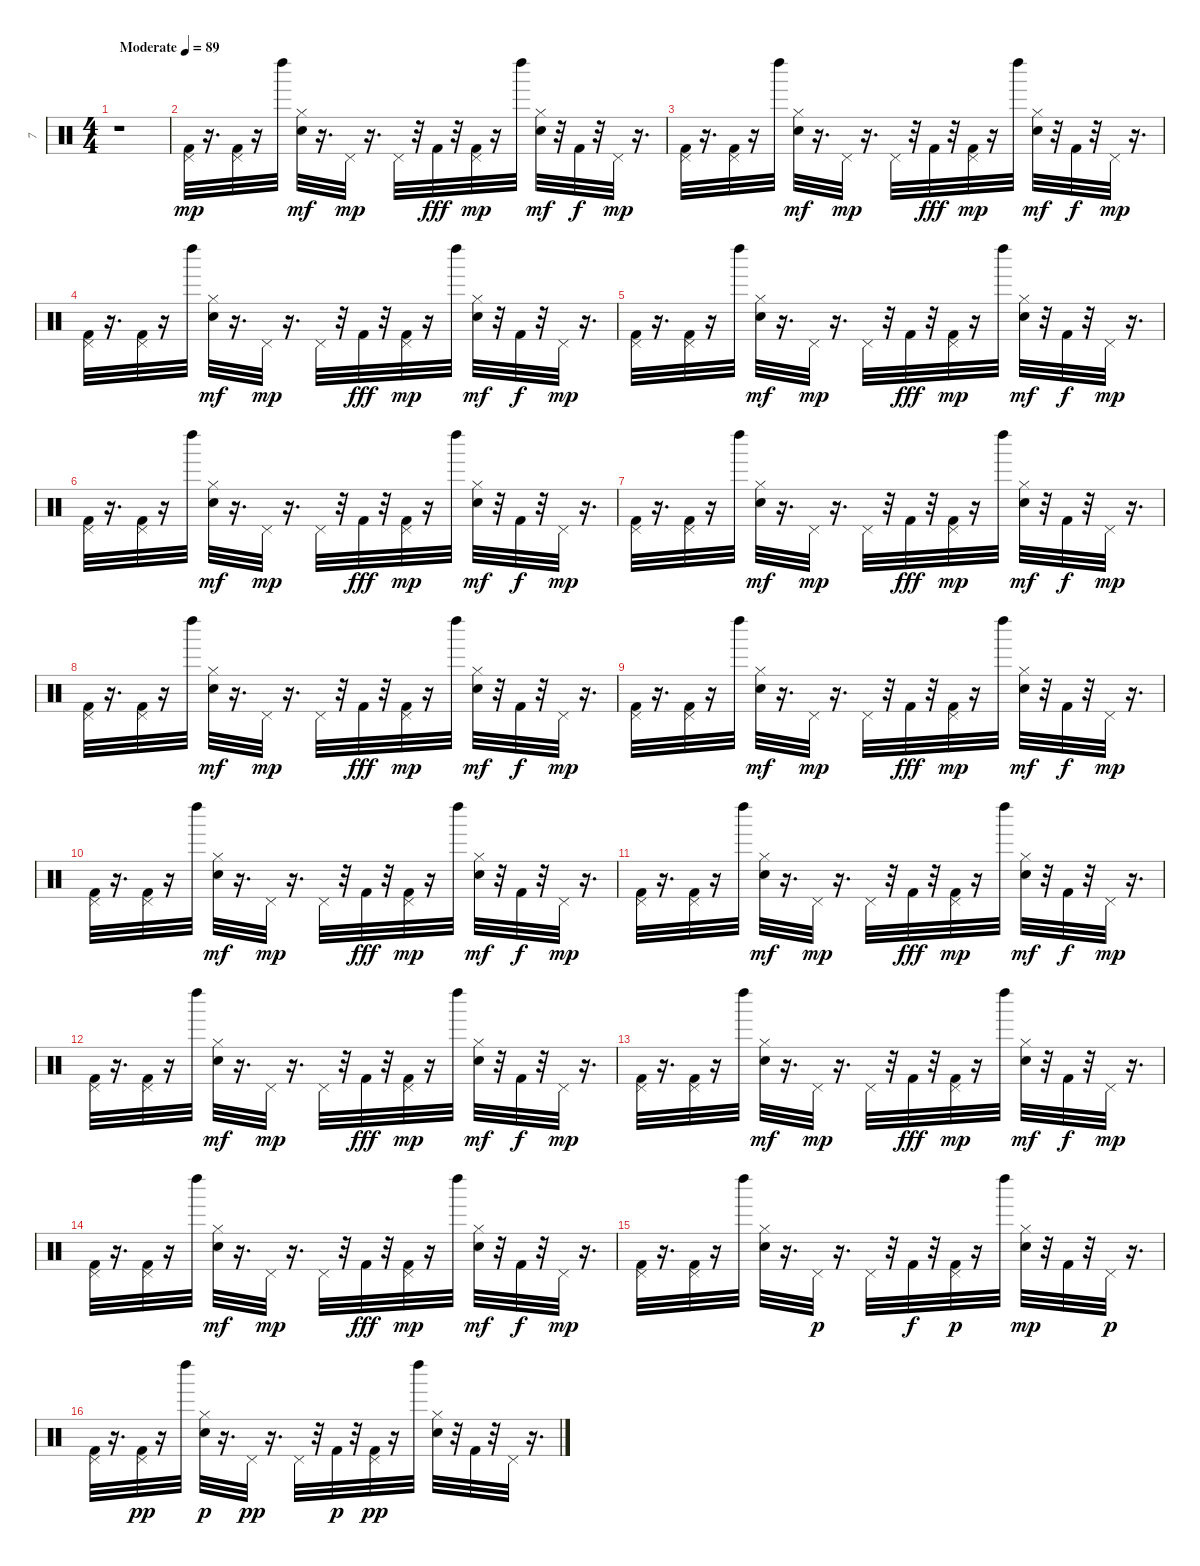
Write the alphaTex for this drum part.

\track ("7" "7") {instrument percussion}
\staff {score}
\articulation defaults
\ts (4 4)
\tempo (89 "Moderate")
\clef neutral
\ks c
r.1{dy mp} |
("Kick (hit) 2" "Pedal Hi-Hat (hit)").32 r.16{d} ("Kick (hit) 2" "Pedal Hi-Hat (hit)").32 r.16 "Left Maraca (hit)".32 ("Hand Clap (hit)" "Hi-Hat (closed)").32{dy mf} r.16{d} "Pedal Hi-Hat (hit)".32{dy mp} r.16{d} "Pedal Hi-Hat (hit)".32 r.32 "Kick (hit) 2".32{dy fff} r.32 ("Kick (hit) 2" "Pedal Hi-Hat (hit)").32{dy mp} r.16 "Left Maraca (hit)".32 ("Hand Clap (hit)" "Hi-Hat (closed)").32{dy mf} r.32 "Kick (hit) 2".32{dy f} r.32 "Pedal Hi-Hat (hit)".32{dy mp} r.16{d} |
("Kick (hit) 2" "Pedal Hi-Hat (hit)").32 r.16{d} ("Kick (hit) 2" "Pedal Hi-Hat (hit)").32 r.16 "Left Maraca (hit)".32 ("Hand Clap (hit)" "Hi-Hat (closed)").32{dy mf} r.16{d} "Pedal Hi-Hat (hit)".32{dy mp} r.16{d} "Pedal Hi-Hat (hit)".32 r.32 "Kick (hit) 2".32{dy fff} r.32 ("Kick (hit) 2" "Pedal Hi-Hat (hit)").32{dy mp} r.16 "Left Maraca (hit)".32 ("Hand Clap (hit)" "Hi-Hat (closed)").32{dy mf} r.32 "Kick (hit) 2".32{dy f} r.32 "Pedal Hi-Hat (hit)".32{dy mp} r.16{d} |
("Kick (hit) 2" "Pedal Hi-Hat (hit)").32 r.16{d} ("Kick (hit) 2" "Pedal Hi-Hat (hit)").32 r.16 "Left Maraca (hit)".32 ("Hand Clap (hit)" "Hi-Hat (closed)").32{dy mf} r.16{d} "Pedal Hi-Hat (hit)".32{dy mp} r.16{d} "Pedal Hi-Hat (hit)".32 r.32 "Kick (hit) 2".32{dy fff} r.32 ("Kick (hit) 2" "Pedal Hi-Hat (hit)").32{dy mp} r.16 "Left Maraca (hit)".32 ("Hand Clap (hit)" "Hi-Hat (closed)").32{dy mf} r.32 "Kick (hit) 2".32{dy f} r.32 "Pedal Hi-Hat (hit)".32{dy mp} r.16{d} |
("Kick (hit) 2" "Pedal Hi-Hat (hit)").32 r.16{d} ("Kick (hit) 2" "Pedal Hi-Hat (hit)").32 r.16 "Left Maraca (hit)".32 ("Hand Clap (hit)" "Hi-Hat (closed)").32{dy mf} r.16{d} "Pedal Hi-Hat (hit)".32{dy mp} r.16{d} "Pedal Hi-Hat (hit)".32 r.32 "Kick (hit) 2".32{dy fff} r.32 ("Kick (hit) 2" "Pedal Hi-Hat (hit)").32{dy mp} r.16 "Left Maraca (hit)".32 ("Hand Clap (hit)" "Hi-Hat (closed)").32{dy mf} r.32 "Kick (hit) 2".32{dy f} r.32 "Pedal Hi-Hat (hit)".32{dy mp} r.16{d} |
("Kick (hit) 2" "Pedal Hi-Hat (hit)").32 r.16{d} ("Kick (hit) 2" "Pedal Hi-Hat (hit)").32 r.16 "Left Maraca (hit)".32 ("Hand Clap (hit)" "Hi-Hat (closed)").32{dy mf} r.16{d} "Pedal Hi-Hat (hit)".32{dy mp} r.16{d} "Pedal Hi-Hat (hit)".32 r.32 "Kick (hit) 2".32{dy fff} r.32 ("Kick (hit) 2" "Pedal Hi-Hat (hit)").32{dy mp} r.16 "Left Maraca (hit)".32 ("Hand Clap (hit)" "Hi-Hat (closed)").32{dy mf} r.32 "Kick (hit) 2".32{dy f} r.32 "Pedal Hi-Hat (hit)".32{dy mp} r.16{d} |
("Kick (hit) 2" "Pedal Hi-Hat (hit)").32 r.16{d} ("Kick (hit) 2" "Pedal Hi-Hat (hit)").32 r.16 "Left Maraca (hit)".32 ("Hand Clap (hit)" "Hi-Hat (closed)").32{dy mf} r.16{d} "Pedal Hi-Hat (hit)".32{dy mp} r.16{d} "Pedal Hi-Hat (hit)".32 r.32 "Kick (hit) 2".32{dy fff} r.32 ("Kick (hit) 2" "Pedal Hi-Hat (hit)").32{dy mp} r.16 "Left Maraca (hit)".32 ("Hand Clap (hit)" "Hi-Hat (closed)").32{dy mf} r.32 "Kick (hit) 2".32{dy f} r.32 "Pedal Hi-Hat (hit)".32{dy mp} r.16{d} |
("Kick (hit) 2" "Pedal Hi-Hat (hit)").32 r.16{d} ("Kick (hit) 2" "Pedal Hi-Hat (hit)").32 r.16 "Left Maraca (hit)".32 ("Hand Clap (hit)" "Hi-Hat (closed)").32{dy mf} r.16{d} "Pedal Hi-Hat (hit)".32{dy mp} r.16{d} "Pedal Hi-Hat (hit)".32 r.32 "Kick (hit) 2".32{dy fff} r.32 ("Kick (hit) 2" "Pedal Hi-Hat (hit)").32{dy mp} r.16 "Left Maraca (hit)".32 ("Hand Clap (hit)" "Hi-Hat (closed)").32{dy mf} r.32 "Kick (hit) 2".32{dy f} r.32 "Pedal Hi-Hat (hit)".32{dy mp} r.16{d} |
("Kick (hit) 2" "Pedal Hi-Hat (hit)").32 r.16{d} ("Kick (hit) 2" "Pedal Hi-Hat (hit)").32 r.16 "Left Maraca (hit)".32 ("Hand Clap (hit)" "Hi-Hat (closed)").32{dy mf} r.16{d} "Pedal Hi-Hat (hit)".32{dy mp} r.16{d} "Pedal Hi-Hat (hit)".32 r.32 "Kick (hit) 2".32{dy fff} r.32 ("Kick (hit) 2" "Pedal Hi-Hat (hit)").32{dy mp} r.16 "Left Maraca (hit)".32 ("Hand Clap (hit)" "Hi-Hat (closed)").32{dy mf} r.32 "Kick (hit) 2".32{dy f} r.32 "Pedal Hi-Hat (hit)".32{dy mp} r.16{d} |
("Kick (hit) 2" "Pedal Hi-Hat (hit)").32 r.16{d} ("Kick (hit) 2" "Pedal Hi-Hat (hit)").32 r.16 "Left Maraca (hit)".32 ("Hand Clap (hit)" "Hi-Hat (closed)").32{dy mf} r.16{d} "Pedal Hi-Hat (hit)".32{dy mp} r.16{d} "Pedal Hi-Hat (hit)".32 r.32 "Kick (hit) 2".32{dy fff} r.32 ("Kick (hit) 2" "Pedal Hi-Hat (hit)").32{dy mp} r.16 "Left Maraca (hit)".32 ("Hand Clap (hit)" "Hi-Hat (closed)").32{dy mf} r.32 "Kick (hit) 2".32{dy f} r.32 "Pedal Hi-Hat (hit)".32{dy mp} r.16{d} |
("Kick (hit) 2" "Pedal Hi-Hat (hit)").32 r.16{d} ("Kick (hit) 2" "Pedal Hi-Hat (hit)").32 r.16 "Left Maraca (hit)".32 ("Hand Clap (hit)" "Hi-Hat (closed)").32{dy mf} r.16{d} "Pedal Hi-Hat (hit)".32{dy mp} r.16{d} "Pedal Hi-Hat (hit)".32 r.32 "Kick (hit) 2".32{dy fff} r.32 ("Kick (hit) 2" "Pedal Hi-Hat (hit)").32{dy mp} r.16 "Left Maraca (hit)".32 ("Hand Clap (hit)" "Hi-Hat (closed)").32{dy mf} r.32 "Kick (hit) 2".32{dy f} r.32 "Pedal Hi-Hat (hit)".32{dy mp} r.16{d} |
("Kick (hit) 2" "Pedal Hi-Hat (hit)").32 r.16{d} ("Kick (hit) 2" "Pedal Hi-Hat (hit)").32 r.16 "Left Maraca (hit)".32 ("Hand Clap (hit)" "Hi-Hat (closed)").32{dy mf} r.16{d} "Pedal Hi-Hat (hit)".32{dy mp} r.16{d} "Pedal Hi-Hat (hit)".32 r.32 "Kick (hit) 2".32{dy fff} r.32 ("Kick (hit) 2" "Pedal Hi-Hat (hit)").32{dy mp} r.16 "Left Maraca (hit)".32 ("Hand Clap (hit)" "Hi-Hat (closed)").32{dy mf} r.32 "Kick (hit) 2".32{dy f} r.32 "Pedal Hi-Hat (hit)".32{dy mp} r.16{d} |
("Kick (hit) 2" "Pedal Hi-Hat (hit)").32 r.16{d} ("Kick (hit) 2" "Pedal Hi-Hat (hit)").32 r.16 "Left Maraca (hit)".32 ("Hand Clap (hit)" "Hi-Hat (closed)").32{dy mf} r.16{d} "Pedal Hi-Hat (hit)".32{dy mp} r.16{d} "Pedal Hi-Hat (hit)".32 r.32 "Kick (hit) 2".32{dy fff} r.32 ("Kick (hit) 2" "Pedal Hi-Hat (hit)").32{dy mp} r.16 "Left Maraca (hit)".32 ("Hand Clap (hit)" "Hi-Hat (closed)").32{dy mf} r.32 "Kick (hit) 2".32{dy f} r.32 "Pedal Hi-Hat (hit)".32{dy mp} r.16{d} |
("Kick (hit) 2" "Pedal Hi-Hat (hit)").32 r.16{d} ("Kick (hit) 2" "Pedal Hi-Hat (hit)").32 r.16 "Left Maraca (hit)".32 ("Hand Clap (hit)" "Hi-Hat (closed)").32{dy mf} r.16{d} "Pedal Hi-Hat (hit)".32{dy mp} r.16{d} "Pedal Hi-Hat (hit)".32 r.32 "Kick (hit) 2".32{dy fff} r.32 ("Kick (hit) 2" "Pedal Hi-Hat (hit)").32{dy mp} r.16 "Left Maraca (hit)".32 ("Hand Clap (hit)" "Hi-Hat (closed)").32{dy mf} r.32 "Kick (hit) 2".32{dy f} r.32 "Pedal Hi-Hat (hit)".32{dy mp} r.16{d} |
("Kick (hit) 2" "Pedal Hi-Hat (hit)").32 r.16{d} ("Kick (hit) 2" "Pedal Hi-Hat (hit)").32 r.16 "Left Maraca (hit)".32 ("Hand Clap (hit)" "Hi-Hat (closed)").32 r.16{d} "Pedal Hi-Hat (hit)".32{dy p} r.16{d} "Pedal Hi-Hat (hit)".32 r.32 "Kick (hit) 2".32{dy f} r.32 ("Kick (hit) 2" "Pedal Hi-Hat (hit)").32{dy p} r.16 "Left Maraca (hit)".32 ("Hand Clap (hit)" "Hi-Hat (closed)").32{dy mp} r.32 "Kick (hit) 2".32 r.32 "Pedal Hi-Hat (hit)".32{dy p} r.16{d} |
("Kick (hit) 2" "Pedal Hi-Hat (hit)").32 r.16{d} ("Kick (hit) 2" "Pedal Hi-Hat (hit)").32{dy pp} r.16 "Left Maraca (hit)".32 ("Hand Clap (hit)" "Hi-Hat (closed)").32{dy p} r.16{d} "Pedal Hi-Hat (hit)".32{dy pp} r.16{d} "Pedal Hi-Hat (hit)".32 r.32 "Kick (hit) 2".32{dy p} r.32 ("Kick (hit) 2" "Pedal Hi-Hat (hit)").32{dy pp} r.16 "Left Maraca (hit)".32 ("Hand Clap (hit)" "Hi-Hat (closed)").32 r.32 "Kick (hit) 2".32 r.32 "Pedal Hi-Hat (hit)".32 r.16{d}
